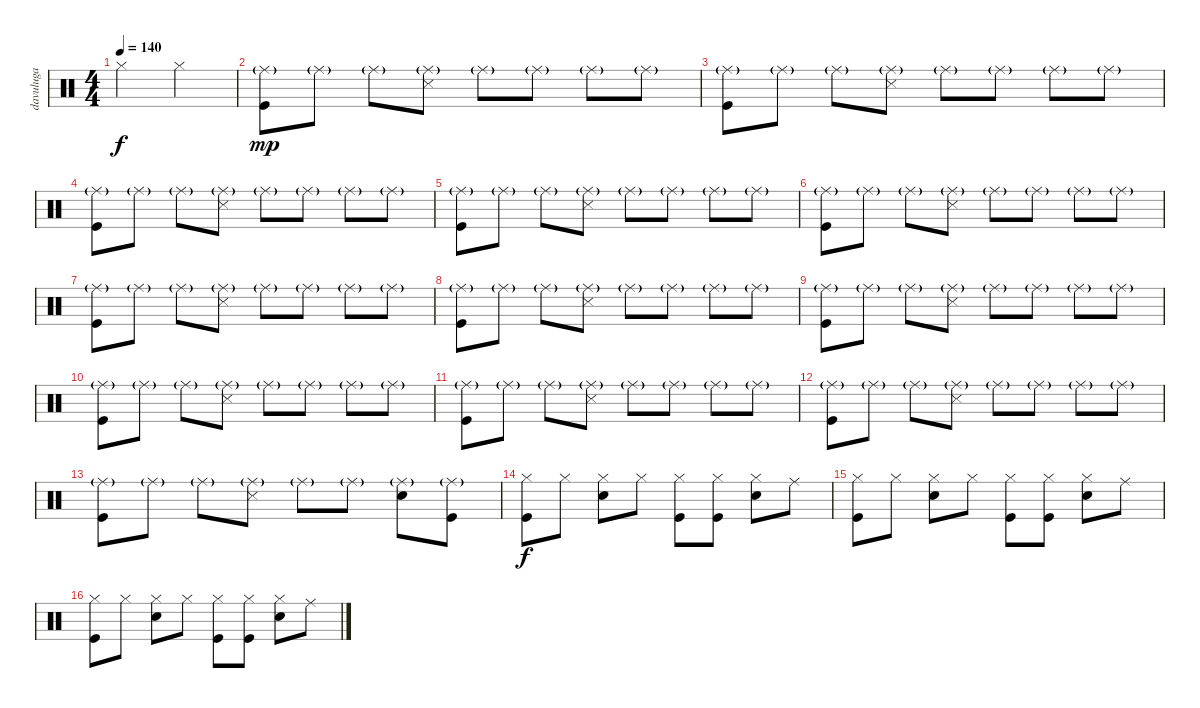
\track ("davuluga" "davuluga") {instrument percussion}
\staff {score}
\articulation defaults
\ts (4 4)
\tempo 140
\clef neutral
\ks c "Hi-Hat (closed)".2{dy f} "Hi-Hat (closed)".2
|
("Ride (middle)"{g} "Kick (hit)").8{dy mp} "Ride (middle)"{g}.8 "Ride (middle)"{g}.8 ("Ride (middle)"{g} "Snare (side stick) 3").8 "Ride (middle)"{g}.8 "Ride (middle)"{g}.8 "Ride (middle)"{g}.8 "Ride (middle)"{g}.8 |
("Ride (middle)"{g} "Kick (hit)").8 "Ride (middle)"{g}.8 "Ride (middle)"{g}.8 ("Ride (middle)"{g} "Snare (side stick) 3").8 "Ride (middle)"{g}.8 "Ride (middle)"{g}.8 "Ride (middle)"{g}.8 "Ride (middle)"{g}.8 |
("Ride (middle)"{g} "Kick (hit)").8 "Ride (middle)"{g}.8 "Ride (middle)"{g}.8 ("Ride (middle)"{g} "Snare (side stick) 3").8 "Ride (middle)"{g}.8 "Ride (middle)"{g}.8 "Ride (middle)"{g}.8 "Ride (middle)"{g}.8 |
("Ride (middle)"{g} "Kick (hit)").8 "Ride (middle)"{g}.8 "Ride (middle)"{g}.8 ("Ride (middle)"{g} "Snare (side stick) 3").8 "Ride (middle)"{g}.8 "Ride (middle)"{g}.8 "Ride (middle)"{g}.8 "Ride (middle)"{g}.8 |
("Ride (middle)"{g} "Kick (hit)").8 "Ride (middle)"{g}.8 "Ride (middle)"{g}.8 ("Ride (middle)"{g} "Snare (side stick) 3").8 "Ride (middle)"{g}.8 "Ride (middle)"{g}.8 "Ride (middle)"{g}.8 "Ride (middle)"{g}.8 |
("Ride (middle)"{g} "Kick (hit)").8 "Ride (middle)"{g}.8 "Ride (middle)"{g}.8 ("Ride (middle)"{g} "Snare (side stick) 3").8 "Ride (middle)"{g}.8 "Ride (middle)"{g}.8 "Ride (middle)"{g}.8 "Ride (middle)"{g}.8 |
("Ride (middle)"{g} "Kick (hit)").8 "Ride (middle)"{g}.8 "Ride (middle)"{g}.8 ("Ride (middle)"{g} "Snare (side stick) 3").8 "Ride (middle)"{g}.8 "Ride (middle)"{g}.8 "Ride (middle)"{g}.8 "Ride (middle)"{g}.8 |
("Ride (middle)"{g} "Kick (hit)").8 "Ride (middle)"{g}.8 "Ride (middle)"{g}.8 ("Ride (middle)"{g} "Snare (side stick) 3").8 "Ride (middle)"{g}.8 "Ride (middle)"{g}.8 "Ride (middle)"{g}.8 "Ride (middle)"{g}.8 |
("Ride (middle)"{g} "Kick (hit)").8 "Ride (middle)"{g}.8 "Ride (middle)"{g}.8 ("Ride (middle)"{g} "Snare (side stick) 3").8 "Ride (middle)"{g}.8 "Ride (middle)"{g}.8 "Ride (middle)"{g}.8 "Ride (middle)"{g}.8 |
("Ride (middle)"{g} "Kick (hit)").8 "Ride (middle)"{g}.8 "Ride (middle)"{g}.8 ("Ride (middle)"{g} "Snare (side stick) 3").8 "Ride (middle)"{g}.8 "Ride (middle)"{g}.8 "Ride (middle)"{g}.8 "Ride (middle)"{g}.8 |
("Ride (middle)"{g} "Kick (hit)").8 "Ride (middle)"{g}.8 "Ride (middle)"{g}.8 ("Ride (middle)"{g} "Snare (side stick) 3").8 "Ride (middle)"{g}.8 "Ride (middle)"{g}.8 "Ride (middle)"{g}.8 "Ride (middle)"{g}.8 |
("Ride (middle)"{g} "Kick (hit)").8 "Ride (middle)"{g}.8 "Ride (middle)"{g}.8 ("Ride (middle)"{g} "Snare (side stick) 3").8 "Ride (middle)"{g}.8 "Ride (middle)"{g}.8 ("Ride (middle)"{g} "Electric Snare (hit)").8 ("Ride (middle)"{g} "Kick (hit)").8 |
("Hi-Hat (closed)" "Kick (hit)").8{dy f} "Hi-Hat (closed)".8 ("Hi-Hat (closed)" "Electric Snare (hit)").8 "Hi-Hat (closed)".8 ("Hi-Hat (closed)" "Kick (hit)").8 ("Hi-Hat (closed)" "Kick (hit)").8 ("Hi-Hat (closed)" "Electric Snare (hit)").8 "Ride (middle)".8 |
("Hi-Hat (closed)" "Kick (hit)").8 "Hi-Hat (closed)".8 ("Hi-Hat (closed)" "Electric Snare (hit)").8 "Hi-Hat (closed)".8 ("Hi-Hat (closed)" "Kick (hit)").8 ("Hi-Hat (closed)" "Kick (hit)").8 ("Hi-Hat (closed)" "Electric Snare (hit)").8 "Ride (middle)".8 |
("Hi-Hat (closed)" "Kick (hit)").8 "Hi-Hat (closed)".8 ("Hi-Hat (closed)" "Electric Snare (hit)").8 "Hi-Hat (closed)".8 ("Hi-Hat (closed)" "Kick (hit)").8 ("Hi-Hat (closed)" "Kick (hit)").8 ("Hi-Hat (closed)" "Electric Snare (hit)").8 "Ride (middle)".8
